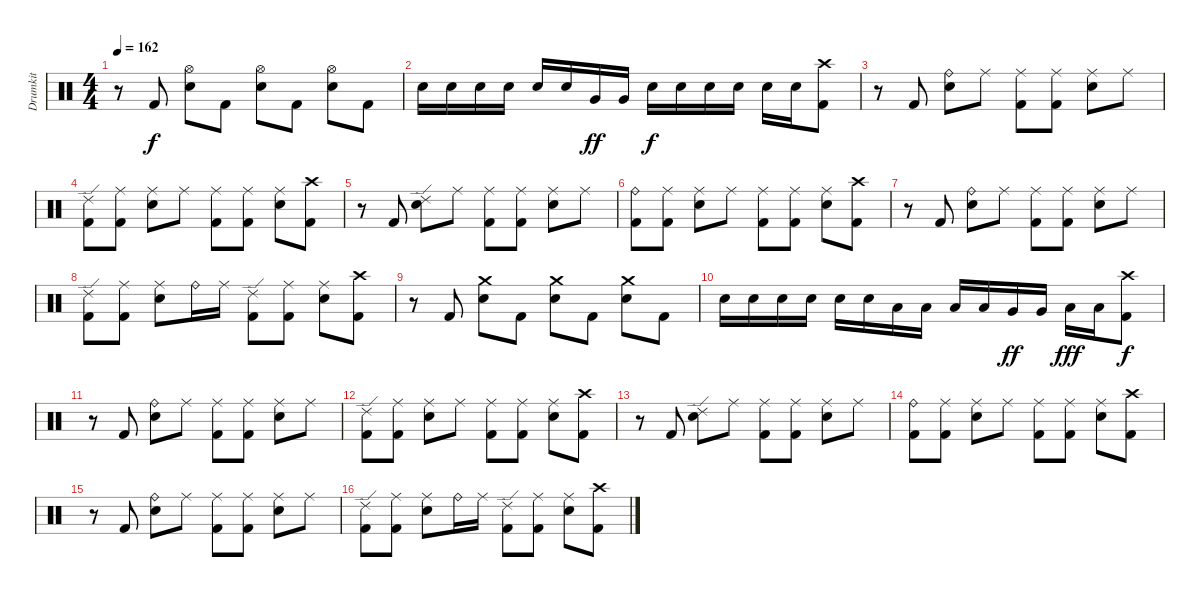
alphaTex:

\track ("Drumkit" "Drumkit") {instrument percussion}
\staff {score}
\articulation defaults
\ts (4 4)
\tempo 162
\clef neutral
\ks c
r.8{dy f} "Kick (hit) 2".8 ("Hi-Hat (open)" "Electric Snare (hit)").8 "Kick (hit) 2".8 ("Hi-Hat (open)" "Electric Snare (hit)").8 "Kick (hit) 2".8 ("Hi-Hat (open)" "Electric Snare (hit)").8 "Kick (hit) 2".8 |
"Electric Snare (hit)".16 "Electric Snare (hit)".16 "Electric Snare (hit)".16 "Electric Snare (hit)".16 "Electric Snare (hit)".16 "Electric Snare (hit)".16 "Very Low Tom (hit)".16{dy ff} "Very Low Tom (hit)".16 "Electric Snare (hit)".16{dy f} "Electric Snare (hit)".16 "Electric Snare (hit)".16 "Electric Snare (hit)".16 "Electric Snare (hit)".16 "Electric Snare (hit)".16 ("Crash high (hit)" "Kick (hit) 2").8 |
r.8 "Kick (hit) 2".8 ("Ride (bell)" "Electric Snare (hit)").8 "Ride (middle)".8 ("Ride (middle)" "Kick (hit) 2").8 ("Ride (middle)" "Kick (hit) 2").8 ("Ride (middle)" "Electric Snare (hit)").8 "Ride (middle)".8 |
("Ride (edge) 2" "Kick (hit) 2").8 ("Ride (middle)" "Kick (hit) 2").8 ("Ride (middle)" "Electric Snare (hit)").8 "Ride (middle)".8 ("Ride (middle)" "Kick (hit) 2").8 ("Ride (middle)" "Kick (hit) 2").8 ("Ride (middle)" "Electric Snare (hit)").8 ("Crash high (hit)" "Kick (hit) 2").8 |
r.8 "Kick (hit) 2".8 ("Ride (edge) 2" "Electric Snare (hit)").8 "Ride (middle)".8 ("Ride (middle)" "Kick (hit) 2").8 ("Ride (middle)" "Kick (hit) 2").8 ("Ride (middle)" "Electric Snare (hit)").8 "Ride (middle)".8 |
("Ride (bell)" "Kick (hit) 2").8 ("Ride (middle)" "Kick (hit) 2").8 ("Ride (middle)" "Electric Snare (hit)").8 "Ride (middle)".8 ("Ride (middle)" "Kick (hit) 2").8 ("Ride (middle)" "Kick (hit) 2").8 ("Ride (middle)" "Electric Snare (hit)").8 ("Crash high (hit)" "Kick (hit) 2").8 |
r.8 "Kick (hit) 2".8 ("Ride (bell)" "Electric Snare (hit)").8 "Ride (middle)".8 ("Ride (middle)" "Kick (hit) 2").8 ("Ride (middle)" "Kick (hit) 2").8 ("Ride (middle)" "Electric Snare (hit)").8 "Ride (middle)".8 |
("Ride (edge) 2" "Kick (hit) 2").8 ("Ride (middle)" "Kick (hit) 2").8 ("Ride (middle)" "Electric Snare (hit)").8 "Ride (bell)".16 "Ride (middle)".16 ("Ride (edge) 2" "Kick (hit) 2").8 ("Ride (middle)" "Kick (hit) 2").8 ("Ride (middle)" "Electric Snare (hit)").8 ("Crash high (hit)" "Kick (hit) 2").8 |
r.8 "Kick (hit) 2".8 ("Crash medium (hit)" "Electric Snare (hit)").8 "Kick (hit) 2".8 ("Crash medium (hit)" "Electric Snare (hit)").8 "Kick (hit) 2".8 ("Crash medium (hit)" "Electric Snare (hit)").8 "Kick (hit) 2".8 |
"Electric Snare (hit)".16 "Electric Snare (hit)".16 "Electric Snare (hit)".16 "Electric Snare (hit)".16 "Electric Snare (hit)".16 "Electric Snare (hit)".16 "Low Tom (hit)".16 "Low Tom (hit)".16 "Low Tom (hit)".16 "Low Tom (hit)".16 "Very Low Tom (hit)".16{dy ff} "Very Low Tom (hit)".16 "Low Floor Tom (hit)".16{dy fff} "Low Floor Tom (hit)".16 ("Crash high (hit)" "Kick (hit) 2").8{dy f} |
r.8 "Kick (hit) 2".8 ("Ride (bell)" "Electric Snare (hit)").8 "Ride (middle)".8 ("Ride (middle)" "Kick (hit) 2").8 ("Ride (middle)" "Kick (hit) 2").8 ("Ride (middle)" "Electric Snare (hit)").8 "Ride (middle)".8 |
("Ride (edge) 2" "Kick (hit) 2").8 ("Ride (middle)" "Kick (hit) 2").8 ("Ride (middle)" "Electric Snare (hit)").8 "Ride (middle)".8 ("Ride (middle)" "Kick (hit) 2").8 ("Ride (middle)" "Kick (hit) 2").8 ("Ride (middle)" "Electric Snare (hit)").8 ("Crash high (hit)" "Kick (hit) 2").8 |
r.8 "Kick (hit) 2".8 ("Ride (edge) 2" "Electric Snare (hit)").8 "Ride (middle)".8 ("Ride (middle)" "Kick (hit) 2").8 ("Ride (middle)" "Kick (hit) 2").8 ("Ride (middle)" "Electric Snare (hit)").8 "Ride (middle)".8 |
("Ride (bell)" "Kick (hit) 2").8 ("Ride (middle)" "Kick (hit) 2").8 ("Ride (middle)" "Electric Snare (hit)").8 "Ride (middle)".8 ("Ride (middle)" "Kick (hit) 2").8 ("Ride (middle)" "Kick (hit) 2").8 ("Ride (middle)" "Electric Snare (hit)").8 ("Crash high (hit)" "Kick (hit) 2").8 |
r.8 "Kick (hit) 2".8 ("Ride (bell)" "Electric Snare (hit)").8 "Ride (middle)".8 ("Ride (middle)" "Kick (hit) 2").8 ("Ride (middle)" "Kick (hit) 2").8 ("Ride (middle)" "Electric Snare (hit)").8 "Ride (middle)".8 |
("Ride (edge) 2" "Kick (hit) 2").8 ("Ride (middle)" "Kick (hit) 2").8 ("Ride (middle)" "Electric Snare (hit)").8 "Ride (bell)".16 "Ride (middle)".16 ("Ride (edge) 2" "Kick (hit) 2").8 ("Ride (middle)" "Kick (hit) 2").8 ("Ride (middle)" "Electric Snare (hit)").8 ("Crash high (hit)" "Kick (hit) 2").8
